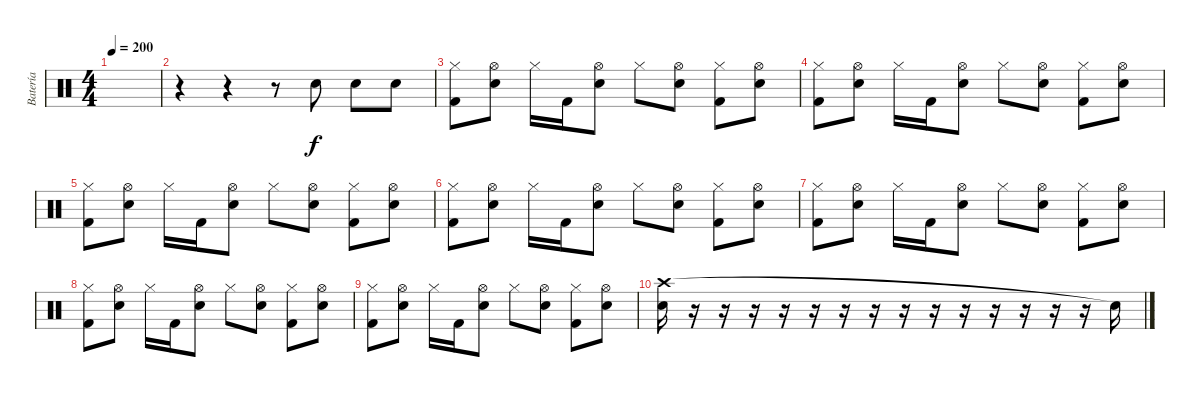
\track ("Batería" "Batería") {instrument percussion}
\staff {score}
\articulation defaults
\ts (4 4)
\tempo 200
\clef neutral
\ks c
|
r.4 r.4 r.8 "Snare (hit) 2".8 "Snare (hit) 2".8 "Snare (hit) 2".8 |
("Hi-Hat (closed)" "Kick (hit) 2").8 ("Hi-Hat (open)" "Snare (hit) 2").8 "Hi-Hat (closed)".16 "Kick (hit) 2".16 ("Hi-Hat (open)" "Snare (hit) 2").8 "Hi-Hat (closed)".8 ("Hi-Hat (open)" "Snare (hit) 2").8 ("Hi-Hat (closed)" "Kick (hit) 2").8 ("Hi-Hat (open)" "Snare (hit) 2").8 |
("Hi-Hat (closed)" "Kick (hit) 2").8 ("Hi-Hat (open)" "Snare (hit) 2").8 "Hi-Hat (closed)".16 "Kick (hit) 2".16 ("Hi-Hat (open)" "Snare (hit) 2").8 "Hi-Hat (closed)".8 ("Hi-Hat (open)" "Snare (hit) 2").8 ("Hi-Hat (closed)" "Kick (hit) 2").8 ("Hi-Hat (open)" "Snare (hit) 2").8 |
("Hi-Hat (closed)" "Kick (hit) 2").8 ("Hi-Hat (open)" "Snare (hit) 2").8 "Hi-Hat (closed)".16 "Kick (hit) 2".16 ("Hi-Hat (open)" "Snare (hit) 2").8 "Hi-Hat (closed)".8 ("Hi-Hat (open)" "Snare (hit) 2").8 ("Hi-Hat (closed)" "Kick (hit) 2").8 ("Hi-Hat (open)" "Snare (hit) 2").8 |
("Hi-Hat (closed)" "Kick (hit) 2").8 ("Hi-Hat (open)" "Snare (hit) 2").8 "Hi-Hat (closed)".16 "Kick (hit) 2".16 ("Hi-Hat (open)" "Snare (hit) 2").8 "Hi-Hat (closed)".8 ("Hi-Hat (open)" "Snare (hit) 2").8 ("Hi-Hat (closed)" "Kick (hit) 2").8 ("Hi-Hat (open)" "Snare (hit) 2").8 |
("Hi-Hat (closed)" "Kick (hit) 2").8 ("Hi-Hat (open)" "Snare (hit) 2").8 "Hi-Hat (closed)".16 "Kick (hit) 2".16 ("Hi-Hat (open)" "Snare (hit) 2").8 "Hi-Hat (closed)".8 ("Hi-Hat (open)" "Snare (hit) 2").8 ("Hi-Hat (closed)" "Kick (hit) 2").8 ("Hi-Hat (open)" "Snare (hit) 2").8 |
("Hi-Hat (closed)" "Kick (hit) 2").8 ("Hi-Hat (open)" "Snare (hit) 2").8 "Hi-Hat (closed)".16 "Kick (hit) 2".16 ("Hi-Hat (open)" "Snare (hit) 2").8 "Hi-Hat (closed)".8 ("Hi-Hat (open)" "Snare (hit) 2").8 ("Hi-Hat (closed)" "Kick (hit) 2").8 ("Hi-Hat (open)" "Snare (hit) 2").8 |
("Hi-Hat (closed)" "Kick (hit) 2").8 ("Hi-Hat (open)" "Snare (hit) 2").8 "Hi-Hat (closed)".16 "Kick (hit) 2".16 ("Hi-Hat (open)" "Snare (hit) 2").8 "Hi-Hat (closed)".8 ("Hi-Hat (open)" "Snare (hit) 2").8 ("Hi-Hat (closed)" "Kick (hit) 2").8 ("Hi-Hat (open)" "Snare (hit) 2").8 |
("Crash high (hit)" "Snare (hit) 2").16 r.16 r.16 r.16 r.16 r.16 r.16 r.16 r.16 r.16 r.16 r.16 r.16 r.16 r.16 "Snare (hit)"{t}.16
